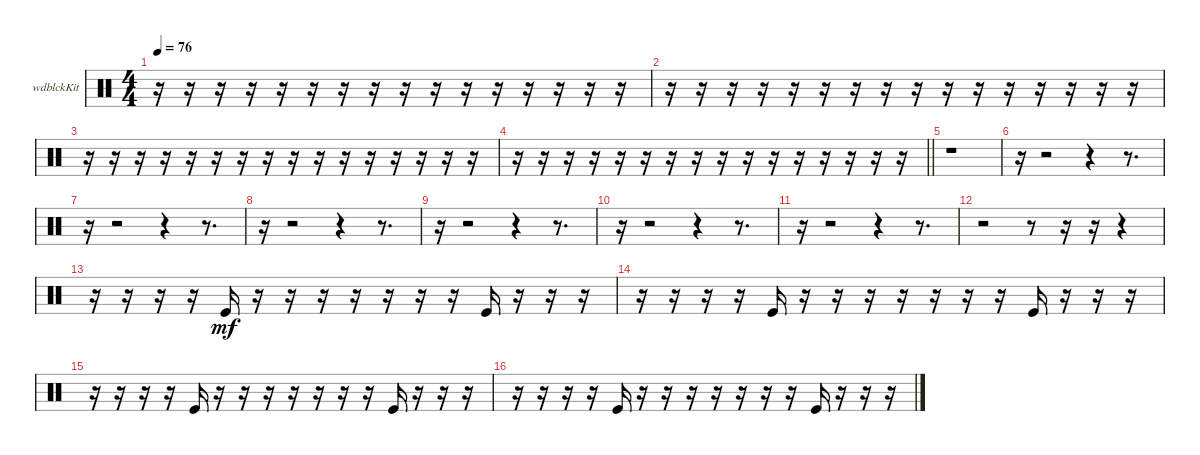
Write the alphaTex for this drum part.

\bracketExtendMode groupsimilarinstruments
\firstSystemTrackNameOrientation horizontal
\otherSystemsTrackNameOrientation horizontal
\track ("Woodblock" "wdblckKit") {instrument percussion}
\staff {score}
\articulation defaults
\ts (4 4)
\tempo 76
\clef neutral
\ks c
r.16{dy mf} r.16 r.16 r.16 r.16 r.16 r.16 r.16 r.16 r.16 r.16 r.16 r.16 r.16 r.16 r.16 |
r.16 r.16 r.16 r.16 r.16 r.16 r.16 r.16 r.16 r.16 r.16 r.16 r.16 r.16 r.16 r.16 |
r.16 r.16 r.16 r.16 r.16 r.16 r.16 r.16 r.16 r.16 r.16 r.16 r.16 r.16 r.16 r.16 |
\barLineRight lightlight
r.16 r.16 r.16 r.16 r.16 r.16 r.16 r.16 r.16 r.16 r.16 r.16 r.16 r.16 r.16 r.16 |
r.1 |
r.16 r.2 r.4 r.8{d} |
r.16 r.2 r.4 r.8{d} |
r.16 r.2 r.4 r.8{d} |
r.16 r.2 r.4 r.8{d} |
r.16 r.2 r.4 r.8{d} |
r.16 r.2 r.4 r.8{d} |
r.2 r.8 r.16 r.16 r.4 |
r.16 r.16 r.16 r.16 "Kick (hit)".16 r.16 r.16 r.16 r.16 r.16 r.16 r.16 "Kick (hit)".16 r.16 r.16 r.16 |
r.16 r.16 r.16 r.16 "Kick (hit)".16 r.16 r.16 r.16 r.16 r.16 r.16 r.16 "Kick (hit)".16 r.16 r.16 r.16 |
r.16 r.16 r.16 r.16 "Kick (hit)".16 r.16 r.16 r.16 r.16 r.16 r.16 r.16 "Kick (hit)".16 r.16 r.16 r.16 |
r.16 r.16 r.16 r.16 "Kick (hit)".16 r.16 r.16 r.16 r.16 r.16 r.16 r.16 "Kick (hit)".16 r.16 r.16 r.16
